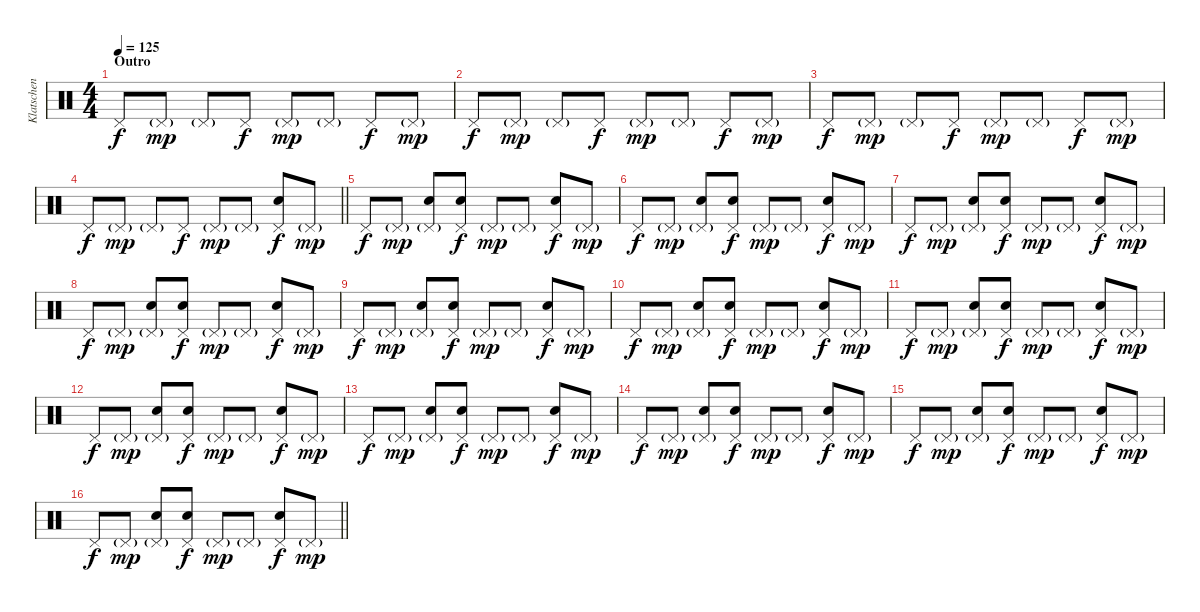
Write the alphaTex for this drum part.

\track ("Klatschen" "Klatschen") {instrument percussion}
\staff {score}
\articulation defaults
\ts (4 4)
\section ("" "Outro")
\tempo 125
\clef neutral
\ks c "Pedal Hi-Hat (hit)".8{dy f} "Pedal Hi-Hat (hit)"{g}.8{dy mp} "Pedal Hi-Hat (hit)"{g}.8 "Pedal Hi-Hat (hit)".8{dy f} "Pedal Hi-Hat (hit)"{g}.8{dy mp} "Pedal Hi-Hat (hit)"{g}.8 "Pedal Hi-Hat (hit)".8{dy f} "Pedal Hi-Hat (hit)"{g}.8{dy mp}
|
"Pedal Hi-Hat (hit)".8{dy f} "Pedal Hi-Hat (hit)"{g}.8{dy mp} "Pedal Hi-Hat (hit)"{g}.8 "Pedal Hi-Hat (hit)".8{dy f} "Pedal Hi-Hat (hit)"{g}.8{dy mp} "Pedal Hi-Hat (hit)"{g}.8 "Pedal Hi-Hat (hit)".8{dy f} "Pedal Hi-Hat (hit)"{g}.8{dy mp} |
"Pedal Hi-Hat (hit)".8{dy f} "Pedal Hi-Hat (hit)"{g}.8{dy mp} "Pedal Hi-Hat (hit)"{g}.8 "Pedal Hi-Hat (hit)".8{dy f} "Pedal Hi-Hat (hit)"{g}.8{dy mp} "Pedal Hi-Hat (hit)"{g}.8 "Pedal Hi-Hat (hit)".8{dy f} "Pedal Hi-Hat (hit)"{g}.8{dy mp} |
\barLineRight lightlight "Pedal Hi-Hat (hit)".8{dy f} "Pedal Hi-Hat (hit)"{g}.8{dy mp} "Pedal Hi-Hat (hit)"{g}.8 "Pedal Hi-Hat (hit)".8{dy f} "Pedal Hi-Hat (hit)"{g}.8{dy mp} "Pedal Hi-Hat (hit)"{g}.8
("Pedal Hi-Hat (hit)" "Hand Clap (hit)").8{dy f} "Pedal Hi-Hat (hit)"{g}.8{dy mp} |
"Pedal Hi-Hat (hit)".8{dy f} "Pedal Hi-Hat (hit)"{g}.8{dy mp} ("Pedal Hi-Hat (hit)"{g} "Hand Clap (hit)").8 ("Pedal Hi-Hat (hit)" "Hand Clap (hit)").8{dy f} "Pedal Hi-Hat (hit)"{g}.8{dy mp} "Pedal Hi-Hat (hit)"{g}.8 ("Pedal Hi-Hat (hit)" "Hand Clap (hit)").8{dy f} "Pedal Hi-Hat (hit)"{g}.8{dy mp} |
"Pedal Hi-Hat (hit)".8{dy f} "Pedal Hi-Hat (hit)"{g}.8{dy mp} ("Pedal Hi-Hat (hit)"{g} "Hand Clap (hit)").8 ("Pedal Hi-Hat (hit)" "Hand Clap (hit)").8{dy f} "Pedal Hi-Hat (hit)"{g}.8{dy mp} "Pedal Hi-Hat (hit)"{g}.8 ("Pedal Hi-Hat (hit)" "Hand Clap (hit)").8{dy f} "Pedal Hi-Hat (hit)"{g}.8{dy mp} |
"Pedal Hi-Hat (hit)".8{dy f} "Pedal Hi-Hat (hit)"{g}.8{dy mp} ("Pedal Hi-Hat (hit)"{g} "Hand Clap (hit)").8 ("Pedal Hi-Hat (hit)" "Hand Clap (hit)").8{dy f} "Pedal Hi-Hat (hit)"{g}.8{dy mp} "Pedal Hi-Hat (hit)"{g}.8 ("Pedal Hi-Hat (hit)" "Hand Clap (hit)").8{dy f} "Pedal Hi-Hat (hit)"{g}.8{dy mp} |
"Pedal Hi-Hat (hit)".8{dy f} "Pedal Hi-Hat (hit)"{g}.8{dy mp} ("Pedal Hi-Hat (hit)"{g} "Hand Clap (hit)").8 ("Pedal Hi-Hat (hit)" "Hand Clap (hit)").8{dy f} "Pedal Hi-Hat (hit)"{g}.8{dy mp} "Pedal Hi-Hat (hit)"{g}.8 ("Pedal Hi-Hat (hit)" "Hand Clap (hit)").8{dy f} "Pedal Hi-Hat (hit)"{g}.8{dy mp} |
"Pedal Hi-Hat (hit)".8{dy f} "Pedal Hi-Hat (hit)"{g}.8{dy mp} ("Pedal Hi-Hat (hit)"{g} "Hand Clap (hit)").8 ("Pedal Hi-Hat (hit)" "Hand Clap (hit)").8{dy f} "Pedal Hi-Hat (hit)"{g}.8{dy mp} "Pedal Hi-Hat (hit)"{g}.8 ("Pedal Hi-Hat (hit)" "Hand Clap (hit)").8{dy f} "Pedal Hi-Hat (hit)"{g}.8{dy mp} |
"Pedal Hi-Hat (hit)".8{dy f} "Pedal Hi-Hat (hit)"{g}.8{dy mp} ("Pedal Hi-Hat (hit)"{g} "Hand Clap (hit)").8 ("Pedal Hi-Hat (hit)" "Hand Clap (hit)").8{dy f} "Pedal Hi-Hat (hit)"{g}.8{dy mp} "Pedal Hi-Hat (hit)"{g}.8 ("Pedal Hi-Hat (hit)" "Hand Clap (hit)").8{dy f} "Pedal Hi-Hat (hit)"{g}.8{dy mp} |
"Pedal Hi-Hat (hit)".8{dy f} "Pedal Hi-Hat (hit)"{g}.8{dy mp} ("Pedal Hi-Hat (hit)"{g} "Hand Clap (hit)").8 ("Pedal Hi-Hat (hit)" "Hand Clap (hit)").8{dy f} "Pedal Hi-Hat (hit)"{g}.8{dy mp} "Pedal Hi-Hat (hit)"{g}.8 ("Pedal Hi-Hat (hit)" "Hand Clap (hit)").8{dy f} "Pedal Hi-Hat (hit)"{g}.8{dy mp} |
"Pedal Hi-Hat (hit)".8{dy f} "Pedal Hi-Hat (hit)"{g}.8{dy mp} ("Pedal Hi-Hat (hit)"{g} "Hand Clap (hit)").8 ("Pedal Hi-Hat (hit)" "Hand Clap (hit)").8{dy f} "Pedal Hi-Hat (hit)"{g}.8{dy mp} "Pedal Hi-Hat (hit)"{g}.8 ("Pedal Hi-Hat (hit)" "Hand Clap (hit)").8{dy f} "Pedal Hi-Hat (hit)"{g}.8{dy mp} |
"Pedal Hi-Hat (hit)".8{dy f} "Pedal Hi-Hat (hit)"{g}.8{dy mp} ("Pedal Hi-Hat (hit)"{g} "Hand Clap (hit)").8 ("Pedal Hi-Hat (hit)" "Hand Clap (hit)").8{dy f} "Pedal Hi-Hat (hit)"{g}.8{dy mp} "Pedal Hi-Hat (hit)"{g}.8 ("Pedal Hi-Hat (hit)" "Hand Clap (hit)").8{dy f} "Pedal Hi-Hat (hit)"{g}.8{dy mp} |
"Pedal Hi-Hat (hit)".8{dy f} "Pedal Hi-Hat (hit)"{g}.8{dy mp} ("Pedal Hi-Hat (hit)"{g} "Hand Clap (hit)").8 ("Pedal Hi-Hat (hit)" "Hand Clap (hit)").8{dy f} "Pedal Hi-Hat (hit)"{g}.8{dy mp} "Pedal Hi-Hat (hit)"{g}.8 ("Pedal Hi-Hat (hit)" "Hand Clap (hit)").8{dy f} "Pedal Hi-Hat (hit)"{g}.8{dy mp} |
"Pedal Hi-Hat (hit)".8{dy f} "Pedal Hi-Hat (hit)"{g}.8{dy mp} ("Pedal Hi-Hat (hit)"{g} "Hand Clap (hit)").8 ("Pedal Hi-Hat (hit)" "Hand Clap (hit)").8{dy f} "Pedal Hi-Hat (hit)"{g}.8{dy mp} "Pedal Hi-Hat (hit)"{g}.8 ("Pedal Hi-Hat (hit)" "Hand Clap (hit)").8{dy f} "Pedal Hi-Hat (hit)"{g}.8{dy mp} |
\barLineRight lightlight "Pedal Hi-Hat (hit)".8{dy f} "Pedal Hi-Hat (hit)"{g}.8{dy mp}
("Pedal Hi-Hat (hit)"{g} "Hand Clap (hit)").8 ("Pedal Hi-Hat (hit)" "Hand Clap (hit)").8{dy f} "Pedal Hi-Hat (hit)"{g}.8{dy mp} "Pedal Hi-Hat (hit)"{g}.8 ("Pedal Hi-Hat (hit)" "Hand Clap (hit)").8{dy f} "Pedal Hi-Hat (hit)"{g}.8{dy mp}
